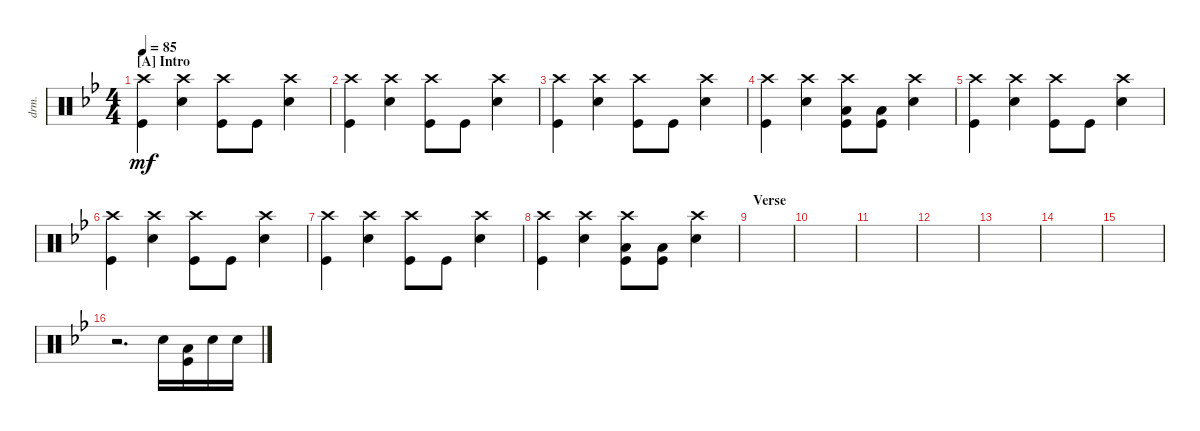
\defaultSystemsLayout 4
\bracketExtendMode groupsimilarinstruments
\otherSystemsTrackNameOrientation horizontal
\track ("Drumkit" "drm.") {solo instrument percussion}
\staff {score}
\articulation defaults
\ts (4 4)
\section ("A" "Intro")
\scale
1.1252
\tempo 85
\accidentals auto
\clef neutral
\ottava regular
\simile none
\ks bb
("Kick (hit)"{acc forcenatural} "Crash high (hit)"{acc forcenatural}).4{dy mf beam Down} ("Snare (hit) 2"{acc forcenatural} "Crash high (hit)"{acc forcenatural}).4{beam Down} ("Kick (hit)"{acc forcenatural} "Crash high (hit)"{acc forcenatural}).8{beam Down} "Kick (hit)"{acc forcenatural}.8{beam Down} ("Snare (hit) 2"{acc forcenatural} "Crash high (hit)"{acc forcenatural}).4{beam Down} |
\scale
0.958265 ("Kick (hit)"{acc forcenatural} "Crash high (hit)"{acc forcenatural}).4{beam Down} ("Snare (hit) 2"{acc forcenatural} "Crash high (hit)"{acc forcenatural}).4{beam Down} ("Kick (hit)"{acc forcenatural} "Crash high (hit)"{acc forcenatural}).8{beam Down} "Kick (hit)"{acc forcenatural}.8{beam Down} ("Snare (hit) 2"{acc forcenatural} "Crash high (hit)"{acc forcenatural}).4{beam Down} |
\scale
0.958265 ("Kick (hit)"{acc forcenatural} "Crash high (hit)"{acc forcenatural}).4{beam Down} ("Snare (hit) 2"{acc forcenatural} "Crash high (hit)"{acc forcenatural}).4{beam Down} ("Kick (hit)"{acc forcenatural} "Crash high (hit)"{acc forcenatural}).8{beam Down} "Kick (hit)"{acc forcenatural}.8{beam Down} ("Snare (hit) 2"{acc forcenatural} "Crash high (hit)"{acc forcenatural}).4{beam Down} |
\scale
0.958265 ("Kick (hit)"{acc forcenatural} "Crash high (hit)"{acc forcenatural}).4{beam Down} ("Snare (hit) 2"{acc forcenatural} "Crash high (hit)"{acc forcenatural}).4{beam Down} ("Kick (hit)"{acc forcenatural} "Crash high (hit)"{acc forcenatural} "Low Tom (hit)"{acc forcenatural}).8{beam Down} ("Kick (hit)"{acc forcenatural} "Low Tom (hit)"{acc forcenatural}).8{beam Down} ("Snare (hit) 2"{acc forcenatural} "Crash high (hit)"{acc forcenatural}).4{beam Down} |
\scale
1.06495 ("Kick (hit)"{acc forcenatural} "Crash high (hit)"{acc forcenatural}).4{beam Down} ("Snare (hit) 2"{acc forcenatural} "Crash high (hit)"{acc forcenatural}).4{beam Down} ("Kick (hit)"{acc forcenatural} "Crash high (hit)"{acc forcenatural}).8{beam Down} "Kick (hit)"{acc forcenatural}.8{beam Down} ("Snare (hit) 2"{acc forcenatural} "Crash high (hit)"{acc forcenatural}).4{beam Down} |
\scale
0.972111 ("Kick (hit)"{acc forcenatural} "Crash high (hit)"{acc forcenatural}).4{beam Down} ("Snare (hit) 2"{acc forcenatural} "Crash high (hit)"{acc forcenatural}).4{beam Down} ("Kick (hit)"{acc forcenatural} "Crash high (hit)"{acc forcenatural}).8{beam Down} "Kick (hit)"{acc forcenatural}.8{beam Down} ("Snare (hit) 2"{acc forcenatural} "Crash high (hit)"{acc forcenatural}).4{beam Down} |
\scale
0.972111 ("Kick (hit)"{acc forcenatural} "Crash high (hit)"{acc forcenatural}).4{beam Down} ("Snare (hit) 2"{acc forcenatural} "Crash high (hit)"{acc forcenatural}).4{beam Down} ("Kick (hit)"{acc forcenatural} "Crash high (hit)"{acc forcenatural}).8{beam Down} "Kick (hit)"{acc forcenatural}.8{beam Down} ("Snare (hit) 2"{acc forcenatural} "Crash high (hit)"{acc forcenatural}).4{beam Down} |
\scale
0.990827 ("Kick (hit)"{acc forcenatural} "Crash high (hit)"{acc forcenatural}).4{beam Down} ("Snare (hit) 2"{acc forcenatural} "Crash high (hit)"{acc forcenatural}).4{beam Down} ("Kick (hit)"{acc forcenatural} "Crash high (hit)"{acc forcenatural} "Low Tom (hit)"{acc forcenatural}).8{beam Down} ("Kick (hit)"{acc forcenatural} "Low Tom (hit)"{acc forcenatural}).8{beam Down} ("Snare (hit) 2"{acc forcenatural} "Crash high (hit)"{acc forcenatural}).4{beam Down} |
\section ("" "Verse")
\scale
1.06963 |
\scale
0.97679 |
\scale
0.97679 |
\scale
0.97679 |
\scale
1.06495 |
\scale
0.972111 |
\scale
0.972111 |
\scale
0.990827 r.2{d beam Down} "Snare (hit) 2"{acc forcenatural}.16{beam Down} ("Kick (hit)"{acc forcenatural} "Low Tom (hit)"{acc forcenatural}).16{beam Down} "Snare (hit) 2"{acc forcenatural}.16{beam Down} "Snare (hit) 2"{acc forcenatural}.16{beam Down}
